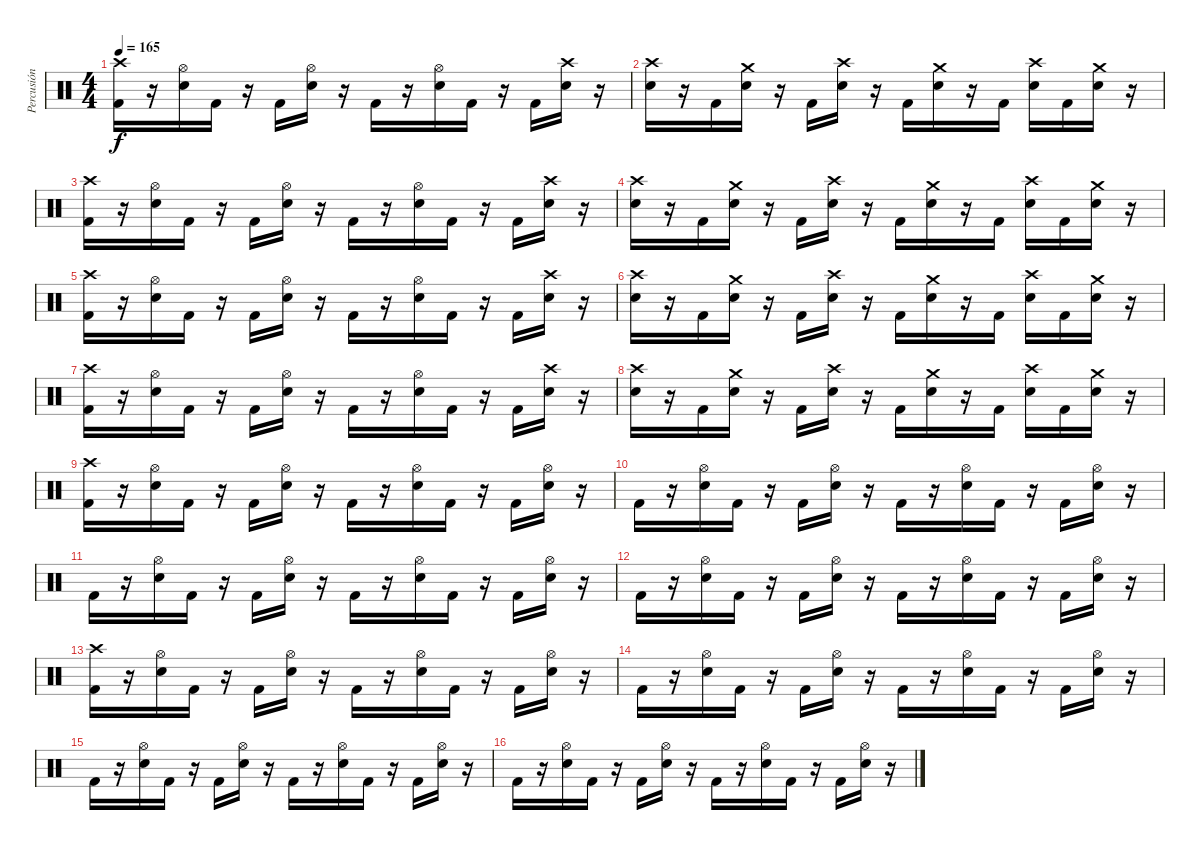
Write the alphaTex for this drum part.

\track ("Percusión" "Percusión") {instrument percussion}
\staff {score}
\articulation defaults
\ts (4 4)
\tempo 165
\clef neutral
\ks c
("Crash high (hit)" "Kick (hit) 2").16{dy f} r.16 ("Hi-Hat (open)" "Electric Snare (hit)").16 "Kick (hit) 2".16 r.16 "Kick (hit) 2".16 ("Hi-Hat (open)" "Electric Snare (hit)").16 r.16 "Kick (hit) 2".16 r.16 ("Hi-Hat (open)" "Electric Snare (hit)").16 "Kick (hit) 2".16 r.16 "Kick (hit) 2".16 ("Crash high (hit)" "Electric Snare (hit)").16 r.16 |
("Crash high (hit)" "Electric Snare (hit)").16 r.16 "Kick (hit) 2".16 ("Crash medium (hit)" "Electric Snare (hit)").16 r.16 "Kick (hit) 2".16 ("Crash high (hit)" "Electric Snare (hit)").16 r.16 "Kick (hit) 2".16 ("Crash medium (hit)" "Electric Snare (hit)").16 r.16 "Kick (hit) 2".16 ("Crash high (hit)" "Electric Snare (hit)").16 "Kick (hit) 2".16 ("Crash medium (hit)" "Electric Snare (hit)").16 r.16 |
("Crash high (hit)" "Kick (hit) 2").16 r.16 ("Hi-Hat (open)" "Electric Snare (hit)").16 "Kick (hit) 2".16 r.16 "Kick (hit) 2".16 ("Hi-Hat (open)" "Electric Snare (hit)").16 r.16 "Kick (hit) 2".16 r.16 ("Hi-Hat (open)" "Electric Snare (hit)").16 "Kick (hit) 2".16 r.16 "Kick (hit) 2".16 ("Crash high (hit)" "Electric Snare (hit)").16 r.16 |
("Crash high (hit)" "Electric Snare (hit)").16 r.16 "Kick (hit) 2".16 ("Crash medium (hit)" "Electric Snare (hit)").16 r.16 "Kick (hit) 2".16 ("Crash high (hit)" "Electric Snare (hit)").16 r.16 "Kick (hit) 2".16 ("Crash medium (hit)" "Electric Snare (hit)").16 r.16 "Kick (hit) 2".16 ("Crash high (hit)" "Electric Snare (hit)").16 "Kick (hit) 2".16 ("Crash medium (hit)" "Electric Snare (hit)").16 r.16 |
("Crash high (hit)" "Kick (hit) 2").16 r.16 ("Hi-Hat (open)" "Electric Snare (hit)").16 "Kick (hit) 2".16 r.16 "Kick (hit) 2".16 ("Hi-Hat (open)" "Electric Snare (hit)").16 r.16 "Kick (hit) 2".16 r.16 ("Hi-Hat (open)" "Electric Snare (hit)").16 "Kick (hit) 2".16 r.16 "Kick (hit) 2".16 ("Crash high (hit)" "Electric Snare (hit)").16 r.16 |
("Crash high (hit)" "Electric Snare (hit)").16 r.16 "Kick (hit) 2".16 ("Crash medium (hit)" "Electric Snare (hit)").16 r.16 "Kick (hit) 2".16 ("Crash high (hit)" "Electric Snare (hit)").16 r.16 "Kick (hit) 2".16 ("Crash medium (hit)" "Electric Snare (hit)").16 r.16 "Kick (hit) 2".16 ("Crash high (hit)" "Electric Snare (hit)").16 "Kick (hit) 2".16 ("Crash medium (hit)" "Electric Snare (hit)").16 r.16 |
("Crash high (hit)" "Kick (hit) 2").16 r.16 ("Hi-Hat (open)" "Electric Snare (hit)").16 "Kick (hit) 2".16 r.16 "Kick (hit) 2".16 ("Hi-Hat (open)" "Electric Snare (hit)").16 r.16 "Kick (hit) 2".16 r.16 ("Hi-Hat (open)" "Electric Snare (hit)").16 "Kick (hit) 2".16 r.16 "Kick (hit) 2".16 ("Crash high (hit)" "Electric Snare (hit)").16 r.16 |
("Crash high (hit)" "Electric Snare (hit)").16 r.16 "Kick (hit) 2".16 ("Crash medium (hit)" "Electric Snare (hit)").16 r.16 "Kick (hit) 2".16 ("Crash high (hit)" "Electric Snare (hit)").16 r.16 "Kick (hit) 2".16 ("Crash medium (hit)" "Electric Snare (hit)").16 r.16 "Kick (hit) 2".16 ("Crash high (hit)" "Electric Snare (hit)").16 "Kick (hit) 2".16 ("Crash medium (hit)" "Electric Snare (hit)").16 r.16 |
("Crash high (hit)" "Kick (hit) 2").16 r.16 ("Hi-Hat (open)" "Electric Snare (hit)").16 "Kick (hit) 2".16 r.16 "Kick (hit) 2".16 ("Hi-Hat (open)" "Electric Snare (hit)").16 r.16 "Kick (hit) 2".16 r.16 ("Hi-Hat (open)" "Electric Snare (hit)").16 "Kick (hit) 2".16 r.16 "Kick (hit) 2".16 ("Hi-Hat (open)" "Electric Snare (hit)").16 r.16 |
"Kick (hit) 2".16 r.16 ("Hi-Hat (open)" "Electric Snare (hit)").16 "Kick (hit) 2".16 r.16 "Kick (hit) 2".16 ("Hi-Hat (open)" "Electric Snare (hit)").16 r.16 "Kick (hit) 2".16 r.16 ("Hi-Hat (open)" "Electric Snare (hit)").16 "Kick (hit) 2".16 r.16 "Kick (hit) 2".16 ("Hi-Hat (open)" "Electric Snare (hit)").16 r.16 |
"Kick (hit) 2".16 r.16 ("Hi-Hat (open)" "Electric Snare (hit)").16 "Kick (hit) 2".16 r.16 "Kick (hit) 2".16 ("Hi-Hat (open)" "Electric Snare (hit)").16 r.16 "Kick (hit) 2".16 r.16 ("Hi-Hat (open)" "Electric Snare (hit)").16 "Kick (hit) 2".16 r.16 "Kick (hit) 2".16 ("Hi-Hat (open)" "Electric Snare (hit)").16 r.16 |
"Kick (hit) 2".16 r.16 ("Hi-Hat (open)" "Electric Snare (hit)").16 "Kick (hit) 2".16 r.16 "Kick (hit) 2".16 ("Hi-Hat (open)" "Electric Snare (hit)").16 r.16 "Kick (hit) 2".16 r.16 ("Hi-Hat (open)" "Electric Snare (hit)").16 "Kick (hit) 2".16 r.16 "Kick (hit) 2".16 ("Hi-Hat (open)" "Electric Snare (hit)").16 r.16 |
("Crash high (hit)" "Kick (hit) 2").16 r.16 ("Hi-Hat (open)" "Electric Snare (hit)").16 "Kick (hit) 2".16 r.16 "Kick (hit) 2".16 ("Hi-Hat (open)" "Electric Snare (hit)").16 r.16 "Kick (hit) 2".16 r.16 ("Hi-Hat (open)" "Electric Snare (hit)").16 "Kick (hit) 2".16 r.16 "Kick (hit) 2".16 ("Hi-Hat (open)" "Electric Snare (hit)").16 r.16 |
"Kick (hit) 2".16 r.16 ("Hi-Hat (open)" "Electric Snare (hit)").16 "Kick (hit) 2".16 r.16 "Kick (hit) 2".16 ("Hi-Hat (open)" "Electric Snare (hit)").16 r.16 "Kick (hit) 2".16 r.16 ("Hi-Hat (open)" "Electric Snare (hit)").16 "Kick (hit) 2".16 r.16 "Kick (hit) 2".16 ("Hi-Hat (open)" "Electric Snare (hit)").16 r.16 |
"Kick (hit) 2".16 r.16 ("Hi-Hat (open)" "Electric Snare (hit)").16 "Kick (hit) 2".16 r.16 "Kick (hit) 2".16 ("Hi-Hat (open)" "Electric Snare (hit)").16 r.16 "Kick (hit) 2".16 r.16 ("Hi-Hat (open)" "Electric Snare (hit)").16 "Kick (hit) 2".16 r.16 "Kick (hit) 2".16 ("Hi-Hat (open)" "Electric Snare (hit)").16 r.16 |
"Kick (hit) 2".16 r.16 ("Hi-Hat (open)" "Electric Snare (hit)").16 "Kick (hit) 2".16 r.16 "Kick (hit) 2".16 ("Hi-Hat (open)" "Electric Snare (hit)").16 r.16 "Kick (hit) 2".16 r.16 ("Hi-Hat (open)" "Electric Snare (hit)").16 "Kick (hit) 2".16 r.16 "Kick (hit) 2".16 ("Hi-Hat (open)" "Electric Snare (hit)").16 r.16
